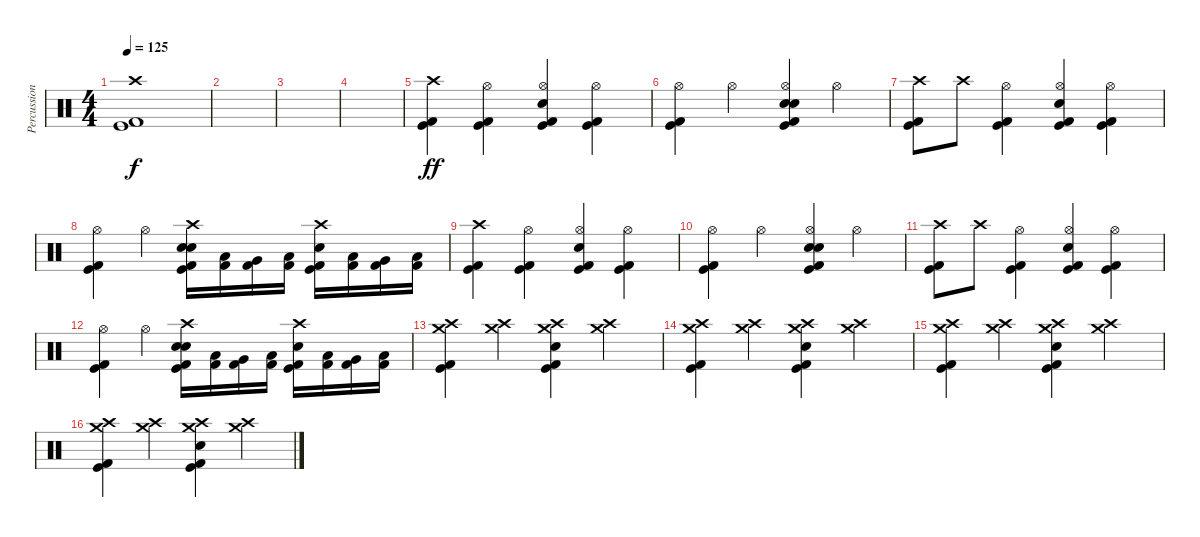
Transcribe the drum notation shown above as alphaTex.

\track ("Percussion" "Percussion") {instrument percussion}
\staff {score}
\articulation defaults
\ts (4 4)
\tempo 125
\clef neutral
\ks c
("Crash high (hit)" "Kick (hit)" "Kick (hit) 2").1{dy f} |
|
|
|
("Crash high (hit)" "Kick (hit) 2" "Kick (hit)").4{dy ff} ("Hi-Hat (open)" "Kick (hit) 2" "Kick (hit)").4 ("Electric Snare (hit)" "Hi-Hat (open)" "Kick (hit) 2" "Kick (hit)").4 ("Hi-Hat (open)" "Kick (hit) 2" "Kick (hit)").4 |
("Hi-Hat (open)" "Kick (hit) 2" "Kick (hit)").4 "Hi-Hat (open)".4 ("Electric Snare (hit)" "Electric Snare (hit)" "Hi-Hat (open)" "Kick (hit) 2" "Kick (hit)").4 "Hi-Hat (open)".4 |
("Crash high (hit)" "Kick (hit) 2" "Kick (hit)").8 "Crash high (hit)".8 ("Hi-Hat (open)" "Kick (hit) 2" "Kick (hit)").4 ("Electric Snare (hit)" "Hi-Hat (open)" "Kick (hit) 2" "Kick (hit)").4 ("Hi-Hat (open)" "Kick (hit) 2" "Kick (hit)").4 |
("Hi-Hat (open)" "Kick (hit) 2" "Kick (hit)").4 "Hi-Hat (open)".4 ("Electric Snare (hit)" "Electric Snare (hit)" "Crash high (hit)" "Kick (hit) 2" "Kick (hit)").16 ("Low Tom (hit)" "Kick (hit) 2").16 ("Very Low Tom (hit)" "Kick (hit) 2").16 ("Low Floor Tom (hit)" "Kick (hit) 2").16 ("Crash high (hit)" "Electric Snare (hit)" "Kick (hit) 2" "Kick (hit)").16 ("Low Tom (hit)" "Kick (hit) 2").16 ("Very Low Tom (hit)" "Kick (hit) 2").16 ("Low Floor Tom (hit)" "Kick (hit) 2").16 |
("Crash high (hit)" "Kick (hit) 2" "Kick (hit)").4 ("Hi-Hat (open)" "Kick (hit) 2" "Kick (hit)").4 ("Electric Snare (hit)" "Hi-Hat (open)" "Kick (hit) 2" "Kick (hit)").4 ("Hi-Hat (open)" "Kick (hit) 2" "Kick (hit)").4 |
("Hi-Hat (open)" "Kick (hit) 2" "Kick (hit)").4 "Hi-Hat (open)".4 ("Electric Snare (hit)" "Electric Snare (hit)" "Hi-Hat (open)" "Kick (hit) 2" "Kick (hit)").4 "Hi-Hat (open)".4 |
("Crash high (hit)" "Kick (hit) 2" "Kick (hit)").8 "Crash high (hit)".8 ("Hi-Hat (open)" "Kick (hit) 2" "Kick (hit)").4 ("Electric Snare (hit)" "Hi-Hat (open)" "Kick (hit) 2" "Kick (hit)").4 ("Hi-Hat (open)" "Kick (hit) 2" "Kick (hit)").4 |
("Hi-Hat (open)" "Kick (hit) 2" "Kick (hit)").4 "Hi-Hat (open)".4 ("Electric Snare (hit)" "Electric Snare (hit)" "Crash high (hit)" "Kick (hit) 2" "Kick (hit)").16 ("Low Tom (hit)" "Kick (hit) 2").16 ("Very Low Tom (hit)" "Kick (hit) 2").16 ("Low Floor Tom (hit)" "Kick (hit) 2").16 ("Crash high (hit)" "Electric Snare (hit)" "Kick (hit) 2" "Kick (hit)").16 ("Low Tom (hit)" "Kick (hit) 2").16 ("Very Low Tom (hit)" "Kick (hit) 2").16 ("Low Floor Tom (hit)" "Kick (hit) 2").16 |
("Crash medium (hit)" "Crash high (hit)" "Kick (hit) 2" "Kick (hit)").4 ("Crash medium (hit)" "Crash high (hit)").4 ("Crash medium (hit)" "Crash high (hit)" "Electric Snare (hit)" "Kick (hit) 2" "Kick (hit)").4 ("Crash medium (hit)" "Crash high (hit)").4 |
("Crash medium (hit)" "Crash high (hit)" "Kick (hit) 2" "Kick (hit)").4 ("Crash medium (hit)" "Crash high (hit)").4 ("Crash medium (hit)" "Crash high (hit)" "Electric Snare (hit)" "Kick (hit) 2" "Kick (hit)").4 ("Crash medium (hit)" "Crash high (hit)").4 |
("Crash medium (hit)" "Crash high (hit)" "Kick (hit) 2" "Kick (hit)").4 ("Crash medium (hit)" "Crash high (hit)").4 ("Crash medium (hit)" "Crash high (hit)" "Electric Snare (hit)" "Kick (hit) 2" "Kick (hit)").4 ("Crash medium (hit)" "Crash high (hit)").4 |
("Crash medium (hit)" "Crash high (hit)" "Kick (hit) 2" "Kick (hit)").4 ("Crash medium (hit)" "Crash high (hit)").4 ("Crash medium (hit)" "Crash high (hit)" "Electric Snare (hit)" "Kick (hit) 2" "Kick (hit)").4 ("Crash medium (hit)" "Crash high (hit)").4
